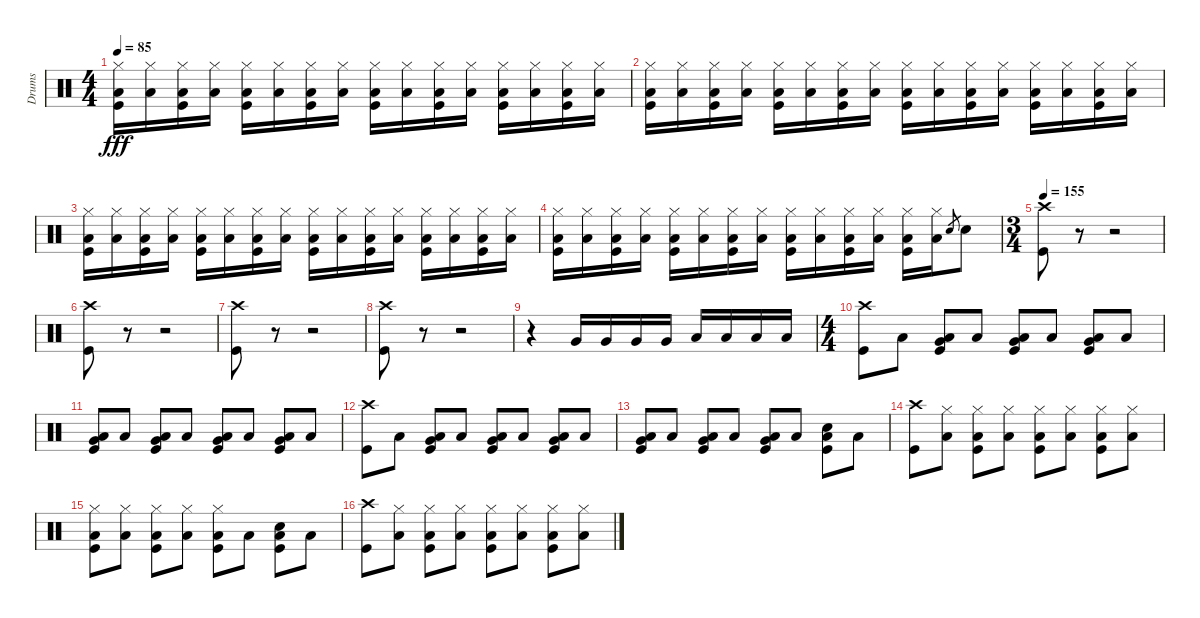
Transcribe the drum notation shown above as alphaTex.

\track ("Drums" "Drums") {instrument percussion}
\staff {score}
\articulation defaults
\ts (4 4)
\tempo 85
\clef neutral
\ks c
("Hi-Hat (closed)" "Low Floor Tom (hit)" "Kick (hit)").16{dy fff} ("Hi-Hat (closed)" "Low Floor Tom (hit)").16 ("Hi-Hat (closed)" "Low Floor Tom (hit)" "Kick (hit)").16 ("Hi-Hat (closed)" "Low Floor Tom (hit)").16 ("Hi-Hat (closed)" "Low Floor Tom (hit)" "Kick (hit)").16 ("Hi-Hat (closed)" "Low Floor Tom (hit)").16 ("Hi-Hat (closed)" "Low Floor Tom (hit)" "Kick (hit)").16 ("Hi-Hat (closed)" "Low Floor Tom (hit)").16 ("Hi-Hat (closed)" "Low Floor Tom (hit)" "Kick (hit)").16 ("Hi-Hat (closed)" "Low Floor Tom (hit)").16 ("Hi-Hat (closed)" "Low Floor Tom (hit)" "Kick (hit)").16 ("Hi-Hat (closed)" "Low Floor Tom (hit)").16 ("Hi-Hat (closed)" "Low Floor Tom (hit)" "Kick (hit)").16 ("Hi-Hat (closed)" "Low Floor Tom (hit)").16 ("Hi-Hat (closed)" "Low Floor Tom (hit)" "Kick (hit)").16 ("Hi-Hat (closed)" "Low Floor Tom (hit)").16 |
("Hi-Hat (closed)" "Low Floor Tom (hit)" "Kick (hit)").16 ("Hi-Hat (closed)" "Low Floor Tom (hit)").16 ("Hi-Hat (closed)" "Low Floor Tom (hit)" "Kick (hit)").16 ("Hi-Hat (closed)" "Low Floor Tom (hit)").16 ("Hi-Hat (closed)" "Low Floor Tom (hit)" "Kick (hit)").16 ("Hi-Hat (closed)" "Low Floor Tom (hit)").16 ("Hi-Hat (closed)" "Low Floor Tom (hit)" "Kick (hit)").16 ("Hi-Hat (closed)" "Low Floor Tom (hit)").16 ("Hi-Hat (closed)" "Low Floor Tom (hit)" "Kick (hit)").16 ("Hi-Hat (closed)" "Low Floor Tom (hit)").16 ("Hi-Hat (closed)" "Low Floor Tom (hit)" "Kick (hit)").16 ("Hi-Hat (closed)" "Low Floor Tom (hit)").16 ("Hi-Hat (closed)" "Low Floor Tom (hit)" "Kick (hit)").16 ("Hi-Hat (closed)" "Low Floor Tom (hit)").16 ("Hi-Hat (closed)" "Low Floor Tom (hit)" "Kick (hit)").16 ("Hi-Hat (closed)" "Low Floor Tom (hit)").16 |
("Hi-Hat (closed)" "Low Floor Tom (hit)" "Kick (hit)").16 ("Hi-Hat (closed)" "Low Floor Tom (hit)").16 ("Hi-Hat (closed)" "Low Floor Tom (hit)" "Kick (hit)").16 ("Hi-Hat (closed)" "Low Floor Tom (hit)").16 ("Hi-Hat (closed)" "Low Floor Tom (hit)" "Kick (hit)").16 ("Hi-Hat (closed)" "Low Floor Tom (hit)").16 ("Hi-Hat (closed)" "Low Floor Tom (hit)" "Kick (hit)").16 ("Hi-Hat (closed)" "Low Floor Tom (hit)").16 ("Hi-Hat (closed)" "Low Floor Tom (hit)" "Kick (hit)").16 ("Hi-Hat (closed)" "Low Floor Tom (hit)").16 ("Hi-Hat (closed)" "Low Floor Tom (hit)" "Kick (hit)").16 ("Hi-Hat (closed)" "Low Floor Tom (hit)").16 ("Hi-Hat (closed)" "Low Floor Tom (hit)" "Kick (hit)").16 ("Hi-Hat (closed)" "Low Floor Tom (hit)").16 ("Hi-Hat (closed)" "Low Floor Tom (hit)" "Kick (hit)").16 ("Hi-Hat (closed)" "Low Floor Tom (hit)").16 |
("Hi-Hat (closed)" "Low Floor Tom (hit)" "Kick (hit)").16 ("Hi-Hat (closed)" "Low Floor Tom (hit)").16 ("Hi-Hat (closed)" "Low Floor Tom (hit)" "Kick (hit)").16 ("Hi-Hat (closed)" "Low Floor Tom (hit)").16 ("Hi-Hat (closed)" "Low Floor Tom (hit)" "Kick (hit)").16 ("Hi-Hat (closed)" "Low Floor Tom (hit)").16 ("Hi-Hat (closed)" "Low Floor Tom (hit)" "Kick (hit)").16 ("Hi-Hat (closed)" "Low Floor Tom (hit)").16 ("Hi-Hat (closed)" "Low Floor Tom (hit)" "Kick (hit)").16 ("Hi-Hat (closed)" "Low Floor Tom (hit)").16 ("Hi-Hat (closed)" "Low Floor Tom (hit)" "Kick (hit)").16 ("Hi-Hat (closed)" "Low Floor Tom (hit)").16 ("Hi-Hat (closed)" "Low Floor Tom (hit)" "Kick (hit)").16 ("Hi-Hat (closed)" "Low Floor Tom (hit)").16 "Snare (hit) 2".8{gr} "Snare (hit) 2".8 |
\ts (3 4)
\tempo 155
("Crash high (hit)" "Kick (hit)").8 r.8 r.2 |
("Crash high (hit)" "Kick (hit)").8 r.8 r.2 |
("Crash high (hit)" "Kick (hit)").8 r.8 r.2 |
("Crash high (hit)" "Kick (hit)").8 r.8 r.2 |
r.4 "Very Low Tom (hit)".16 "Very Low Tom (hit)".16 "Very Low Tom (hit)".16 "Very Low Tom (hit)".16 "Low Floor Tom (hit)".16 "Low Floor Tom (hit)".16 "Low Floor Tom (hit)".16 "Low Floor Tom (hit)".16 |
\ts (4 4)
("Crash high (hit)" "Kick (hit)").8 "Low Floor Tom (hit)".8 ("Very Low Tom (hit)" "Low Floor Tom (hit)" "Kick (hit)").8 "Low Floor Tom (hit)".8 ("Very Low Tom (hit)" "Low Floor Tom (hit)" "Kick (hit)").8 "Low Floor Tom (hit)".8 ("Very Low Tom (hit)" "Low Floor Tom (hit)" "Kick (hit)").8 "Low Floor Tom (hit)".8 |
("Very Low Tom (hit)" "Low Floor Tom (hit)" "Kick (hit)").8 "Low Floor Tom (hit)".8 ("Very Low Tom (hit)" "Low Floor Tom (hit)" "Kick (hit)").8 "Low Floor Tom (hit)".8 ("Very Low Tom (hit)" "Low Floor Tom (hit)" "Kick (hit)").8 "Low Floor Tom (hit)".8 ("Very Low Tom (hit)" "Low Floor Tom (hit)" "Kick (hit)").8 "Low Floor Tom (hit)".8 |
("Crash high (hit)" "Kick (hit)").8 "Low Floor Tom (hit)".8 ("Very Low Tom (hit)" "Low Floor Tom (hit)" "Kick (hit)").8 "Low Floor Tom (hit)".8 ("Very Low Tom (hit)" "Low Floor Tom (hit)" "Kick (hit)").8 "Low Floor Tom (hit)".8 ("Very Low Tom (hit)" "Low Floor Tom (hit)" "Kick (hit)").8 "Low Floor Tom (hit)".8 |
("Very Low Tom (hit)" "Low Floor Tom (hit)" "Kick (hit)").8 "Low Floor Tom (hit)".8 ("Very Low Tom (hit)" "Low Floor Tom (hit)" "Kick (hit)").8 "Low Floor Tom (hit)".8 ("Very Low Tom (hit)" "Low Floor Tom (hit)" "Kick (hit)").8 "Low Floor Tom (hit)".8 ("Low Floor Tom (hit)" "Snare (hit) 2" "Kick (hit)").8 "Low Floor Tom (hit)".8 |
("Crash high (hit)" "Kick (hit)").8 ("Hi-Hat (closed)" "Low Floor Tom (hit)").8 ("Hi-Hat (closed)" "Low Floor Tom (hit)" "Kick (hit)").8 ("Hi-Hat (closed)" "Low Floor Tom (hit)").8 ("Hi-Hat (closed)" "Low Floor Tom (hit)" "Kick (hit)").8 ("Hi-Hat (closed)" "Low Floor Tom (hit)").8 ("Hi-Hat (closed)" "Low Floor Tom (hit)" "Kick (hit)").8 ("Hi-Hat (closed)" "Low Floor Tom (hit)").8 |
("Hi-Hat (closed)" "Low Floor Tom (hit)" "Kick (hit)").8 ("Hi-Hat (closed)" "Low Floor Tom (hit)").8 ("Hi-Hat (closed)" "Low Floor Tom (hit)" "Kick (hit)").8 ("Hi-Hat (closed)" "Low Floor Tom (hit)").8 ("Hi-Hat (closed)" "Low Floor Tom (hit)" "Kick (hit)").8 "Low Floor Tom (hit)".8 ("Low Floor Tom (hit)" "Snare (hit) 2" "Kick (hit)").8 "Low Floor Tom (hit)".8 |
("Crash high (hit)" "Kick (hit)").8 ("Hi-Hat (closed)" "Low Floor Tom (hit)").8 ("Hi-Hat (closed)" "Low Floor Tom (hit)" "Kick (hit)").8 ("Hi-Hat (closed)" "Low Floor Tom (hit)").8 ("Hi-Hat (closed)" "Low Floor Tom (hit)" "Kick (hit)").8 ("Hi-Hat (closed)" "Low Floor Tom (hit)").8 ("Hi-Hat (closed)" "Low Floor Tom (hit)" "Kick (hit)").8 ("Hi-Hat (closed)" "Low Floor Tom (hit)").8
